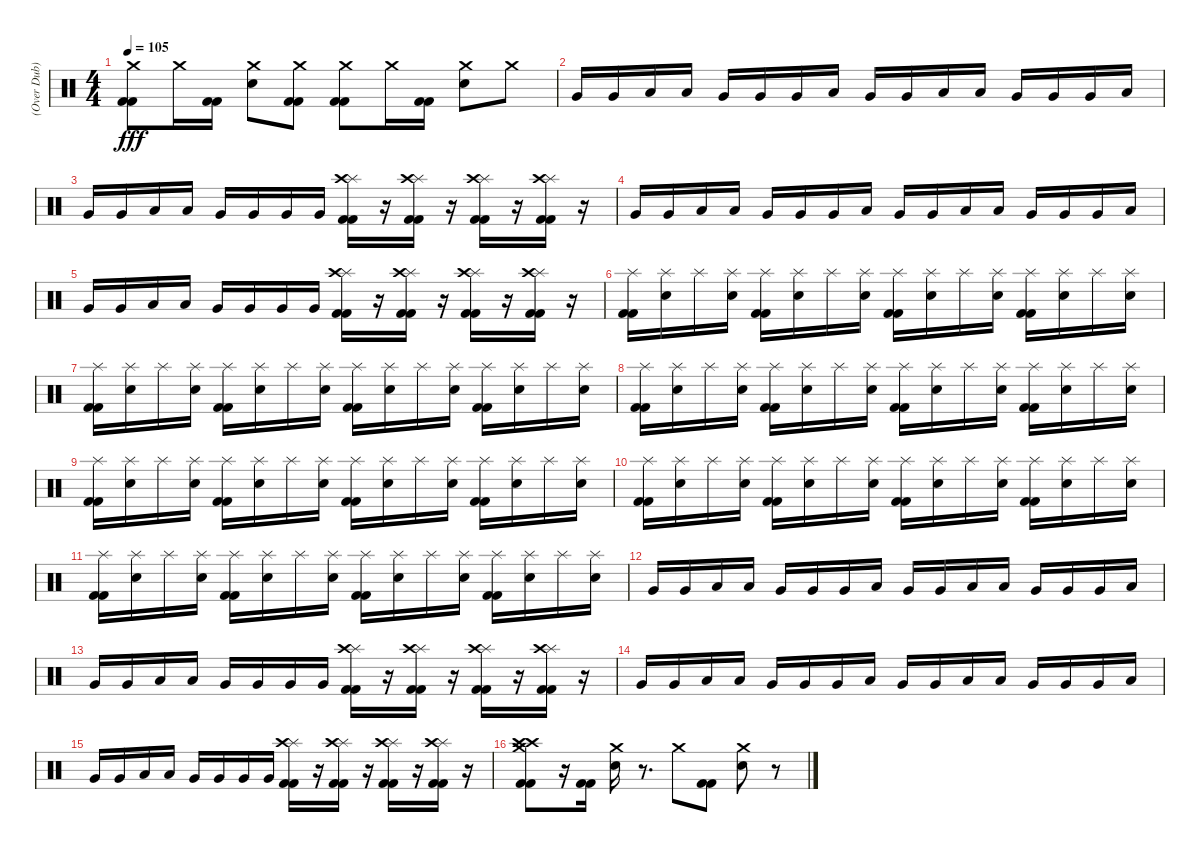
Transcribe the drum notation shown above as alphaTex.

\track ("(Over Dub)" "(Over Dub)") {instrument percussion}
\staff {score}
\articulation defaults
\ts (4 4)
\tempo 105
\clef neutral
\ks c
("Crash medium (hit)" "Kick (hit) 2" "Kick (hit) 2").8{dy fff} "Crash medium (hit)".16 ("Kick (hit) 2" "Kick (hit) 2").16 ("Crash medium (hit)" "Electric Snare (hit)").8 ("Crash medium (hit)" "Kick (hit) 2" "Kick (hit) 2").8 ("Crash medium (hit)" "Kick (hit) 2" "Kick (hit) 2").8 "Crash medium (hit)".16 ("Kick (hit) 2" "Kick (hit) 2").16 ("Crash medium (hit)" "Electric Snare (hit)").8 "Crash medium (hit)".8 |
"Very Low Tom (hit)".16 "Very Low Tom (hit)".16 "Low Tom (hit)".16 "Low Tom (hit)".16 "Very Low Tom (hit)".16 "Very Low Tom (hit)".16 "Very Low Tom (hit)".16 "Low Floor Tom (hit)".16 "Very Low Tom (hit)".16 "Very Low Tom (hit)".16 "Low Tom (hit)".16 "Low Tom (hit)".16 "Very Low Tom (hit)".16 "Very Low Tom (hit)".16 "Very Low Tom (hit)".16 "Low Floor Tom (hit)".16 |
"Very Low Tom (hit)".16 "Very Low Tom (hit)".16 "Low Tom (hit)".16 "Low Tom (hit)".16 "Very Low Tom (hit)".16 "Very Low Tom (hit)".16 "Very Low Tom (hit)".16 "Very Low Tom (hit)".16 ("Splash (hit)" "Crash high (hit)" "Kick (hit) 2" "Kick (hit) 2").16 r.16 ("Splash (hit)" "Crash high (hit)" "Kick (hit) 2" "Kick (hit) 2").16 r.16 ("Splash (hit)" "Crash high (hit)" "Kick (hit) 2" "Kick (hit) 2").16 r.16 ("Splash (hit)" "Crash high (hit)" "Kick (hit) 2" "Kick (hit) 2").16 r.16 |
"Very Low Tom (hit)".16 "Very Low Tom (hit)".16 "Low Tom (hit)".16 "Low Tom (hit)".16 "Very Low Tom (hit)".16 "Very Low Tom (hit)".16 "Very Low Tom (hit)".16 "Low Floor Tom (hit)".16 "Very Low Tom (hit)".16 "Very Low Tom (hit)".16 "Low Tom (hit)".16 "Low Tom (hit)".16 "Very Low Tom (hit)".16 "Very Low Tom (hit)".16 "Very Low Tom (hit)".16 "Low Floor Tom (hit)".16 |
"Very Low Tom (hit)".16 "Very Low Tom (hit)".16 "Low Tom (hit)".16 "Low Tom (hit)".16 "Very Low Tom (hit)".16 "Very Low Tom (hit)".16 "Very Low Tom (hit)".16 "Very Low Tom (hit)".16 ("Splash (hit)" "Crash high (hit)" "Kick (hit) 2" "Kick (hit) 2").16 r.16 ("Splash (hit)" "Crash high (hit)" "Kick (hit) 2" "Kick (hit) 2").16 r.16 ("Splash (hit)" "Crash high (hit)" "Kick (hit) 2" "Kick (hit) 2").16 r.16 ("Splash (hit)" "Crash high (hit)" "Kick (hit) 2" "Kick (hit) 2").16 r.16 |
("Splash (hit)" "Kick (hit) 2" "Kick (hit) 2").16 ("Splash (hit)" "Electric Snare (hit)").16 "Splash (hit)".16 ("Splash (hit)" "Electric Snare (hit)").16 ("Splash (hit)" "Kick (hit) 2" "Kick (hit) 2").16 ("Splash (hit)" "Electric Snare (hit)").16 "Splash (hit)".16 ("Splash (hit)" "Electric Snare (hit)").16 ("Splash (hit)" "Kick (hit) 2" "Kick (hit) 2").16 ("Splash (hit)" "Electric Snare (hit)").16 "Splash (hit)".16 ("Splash (hit)" "Electric Snare (hit)").16 ("Splash (hit)" "Kick (hit) 2" "Kick (hit) 2").16 ("Splash (hit)" "Electric Snare (hit)").16 "Splash (hit)".16 ("Splash (hit)" "Electric Snare (hit)").16 |
("Splash (hit)" "Kick (hit) 2" "Kick (hit) 2").16 ("Splash (hit)" "Electric Snare (hit)").16 "Splash (hit)".16 ("Splash (hit)" "Electric Snare (hit)").16 ("Splash (hit)" "Kick (hit) 2" "Kick (hit) 2").16 ("Splash (hit)" "Electric Snare (hit)").16 "Splash (hit)".16 ("Splash (hit)" "Electric Snare (hit)").16 ("Splash (hit)" "Kick (hit) 2" "Kick (hit) 2").16 ("Splash (hit)" "Electric Snare (hit)").16 "Splash (hit)".16 ("Splash (hit)" "Electric Snare (hit)").16 ("Splash (hit)" "Kick (hit) 2" "Kick (hit) 2").16 ("Splash (hit)" "Electric Snare (hit)").16 "Splash (hit)".16 ("Splash (hit)" "Electric Snare (hit)").16 |
("Splash (hit)" "Kick (hit) 2" "Kick (hit) 2").16 ("Splash (hit)" "Electric Snare (hit)").16 "Splash (hit)".16 ("Splash (hit)" "Electric Snare (hit)").16 ("Splash (hit)" "Kick (hit) 2" "Kick (hit) 2").16 ("Splash (hit)" "Electric Snare (hit)").16 "Splash (hit)".16 ("Splash (hit)" "Electric Snare (hit)").16 ("Splash (hit)" "Kick (hit) 2" "Kick (hit) 2").16 ("Splash (hit)" "Electric Snare (hit)").16 "Splash (hit)".16 ("Splash (hit)" "Electric Snare (hit)").16 ("Splash (hit)" "Kick (hit) 2" "Kick (hit) 2").16 ("Splash (hit)" "Electric Snare (hit)").16 "Splash (hit)".16 ("Splash (hit)" "Electric Snare (hit)").16 |
("Splash (hit)" "Kick (hit) 2" "Kick (hit) 2").16 ("Splash (hit)" "Electric Snare (hit)").16 "Splash (hit)".16 ("Splash (hit)" "Electric Snare (hit)").16 ("Splash (hit)" "Kick (hit) 2" "Kick (hit) 2").16 ("Splash (hit)" "Electric Snare (hit)").16 "Splash (hit)".16 ("Splash (hit)" "Electric Snare (hit)").16 ("Splash (hit)" "Kick (hit) 2" "Kick (hit) 2").16 ("Splash (hit)" "Electric Snare (hit)").16 "Splash (hit)".16 ("Splash (hit)" "Electric Snare (hit)").16 ("Splash (hit)" "Kick (hit) 2" "Kick (hit) 2").16 ("Splash (hit)" "Electric Snare (hit)").16 "Splash (hit)".16 ("Splash (hit)" "Electric Snare (hit)").16 |
("Splash (hit)" "Kick (hit) 2" "Kick (hit) 2").16 ("Splash (hit)" "Electric Snare (hit)").16 "Splash (hit)".16 ("Splash (hit)" "Electric Snare (hit)").16 ("Splash (hit)" "Kick (hit) 2" "Kick (hit) 2").16 ("Splash (hit)" "Electric Snare (hit)").16 "Splash (hit)".16 ("Splash (hit)" "Electric Snare (hit)").16 ("Splash (hit)" "Kick (hit) 2" "Kick (hit) 2").16 ("Splash (hit)" "Electric Snare (hit)").16 "Splash (hit)".16 ("Splash (hit)" "Electric Snare (hit)").16 ("Splash (hit)" "Kick (hit) 2" "Kick (hit) 2").16 ("Splash (hit)" "Electric Snare (hit)").16 "Splash (hit)".16 ("Splash (hit)" "Electric Snare (hit)").16 |
("Splash (hit)" "Kick (hit) 2" "Kick (hit) 2").16 ("Splash (hit)" "Electric Snare (hit)").16 "Splash (hit)".16 ("Splash (hit)" "Electric Snare (hit)").16 ("Splash (hit)" "Kick (hit) 2" "Kick (hit) 2").16 ("Splash (hit)" "Electric Snare (hit)").16 "Splash (hit)".16 ("Splash (hit)" "Electric Snare (hit)").16 ("Splash (hit)" "Kick (hit) 2" "Kick (hit) 2").16 ("Splash (hit)" "Electric Snare (hit)").16 "Splash (hit)".16 ("Splash (hit)" "Electric Snare (hit)").16 ("Splash (hit)" "Kick (hit) 2" "Kick (hit) 2").16 ("Splash (hit)" "Electric Snare (hit)").16 "Splash (hit)".16 ("Splash (hit)" "Electric Snare (hit)").16 |
"Very Low Tom (hit)".16 "Very Low Tom (hit)".16 "Low Tom (hit)".16 "Low Tom (hit)".16 "Very Low Tom (hit)".16 "Very Low Tom (hit)".16 "Very Low Tom (hit)".16 "Low Floor Tom (hit)".16 "Very Low Tom (hit)".16 "Very Low Tom (hit)".16 "Low Tom (hit)".16 "Low Tom (hit)".16 "Very Low Tom (hit)".16 "Very Low Tom (hit)".16 "Very Low Tom (hit)".16 "Low Floor Tom (hit)".16 |
"Very Low Tom (hit)".16 "Very Low Tom (hit)".16 "Low Tom (hit)".16 "Low Tom (hit)".16 "Very Low Tom (hit)".16 "Very Low Tom (hit)".16 "Very Low Tom (hit)".16 "Very Low Tom (hit)".16 ("Splash (hit)" "Crash high (hit)" "Kick (hit) 2" "Kick (hit) 2").16 r.16 ("Splash (hit)" "Crash high (hit)" "Kick (hit) 2" "Kick (hit) 2").16 r.16 ("Splash (hit)" "Crash high (hit)" "Kick (hit) 2" "Kick (hit) 2").16 r.16 ("Splash (hit)" "Crash high (hit)" "Kick (hit) 2" "Kick (hit) 2").16 r.16 |
"Very Low Tom (hit)".16 "Very Low Tom (hit)".16 "Low Tom (hit)".16 "Low Tom (hit)".16 "Very Low Tom (hit)".16 "Very Low Tom (hit)".16 "Very Low Tom (hit)".16 "Low Floor Tom (hit)".16 "Very Low Tom (hit)".16 "Very Low Tom (hit)".16 "Low Tom (hit)".16 "Low Tom (hit)".16 "Very Low Tom (hit)".16 "Very Low Tom (hit)".16 "Very Low Tom (hit)".16 "Low Floor Tom (hit)".16 |
"Very Low Tom (hit)".16 "Very Low Tom (hit)".16 "Low Tom (hit)".16 "Low Tom (hit)".16 "Very Low Tom (hit)".16 "Very Low Tom (hit)".16 "Very Low Tom (hit)".16 "Very Low Tom (hit)".16 ("Splash (hit)" "Crash high (hit)" "Kick (hit) 2" "Kick (hit) 2").16 r.16 ("Splash (hit)" "Crash high (hit)" "Kick (hit) 2" "Kick (hit) 2").16 r.16 ("Splash (hit)" "Crash high (hit)" "Kick (hit) 2" "Kick (hit) 2").16 r.16 ("Splash (hit)" "Crash high (hit)" "Kick (hit) 2" "Kick (hit) 2").16 r.16 |
("Crash high (hit)" "Crash high (hit)" "Crash medium (hit)" "Kick (hit) 2" "Kick (hit) 2").8 r.16 ("Kick (hit) 2" "Kick (hit) 2").16 ("Crash medium (hit)" "Electric Snare (hit)").16 r.8{d} "Crash medium (hit)".8 ("Kick (hit) 2" "Kick (hit) 2").8 ("Crash medium (hit)" "Electric Snare (hit)").8 r.8
